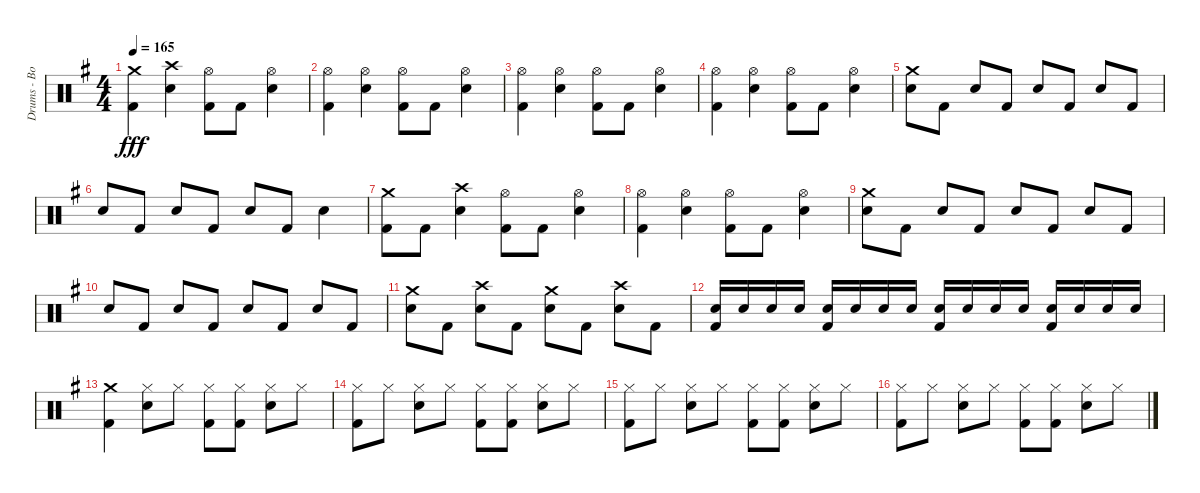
\track ("Drums - Bobby Schayer" "Drums - Bo") {instrument percussion}
\staff {score}
\articulation defaults
\ts (4 4)
\tempo 165
\clef neutral
\ks g
("Crash medium (hit)" "Kick (hit) 2").4{dy fff} ("Crash high (hit)" "Electric Snare (hit)").4 ("Hi-Hat (open)" "Kick (hit) 2").8 "Kick (hit) 2".8 ("Hi-Hat (open)" "Electric Snare (hit)").4 |
("Hi-Hat (open)" "Kick (hit) 2").4 ("Hi-Hat (open)" "Electric Snare (hit)").4 ("Hi-Hat (open)" "Kick (hit) 2").8 "Kick (hit) 2".8 ("Hi-Hat (open)" "Electric Snare (hit)").4 |
("Hi-Hat (open)" "Kick (hit) 2").4 ("Hi-Hat (open)" "Electric Snare (hit)").4 ("Hi-Hat (open)" "Kick (hit) 2").8 "Kick (hit) 2".8 ("Hi-Hat (open)" "Electric Snare (hit)").4 |
("Hi-Hat (open)" "Kick (hit) 2").4 ("Hi-Hat (open)" "Electric Snare (hit)").4 ("Hi-Hat (open)" "Kick (hit) 2").8 "Kick (hit) 2".8 ("Hi-Hat (open)" "Electric Snare (hit)").4 |
("Crash medium (hit)" "Electric Snare (hit)").8 "Kick (hit) 2".8 "Electric Snare (hit)".8 "Kick (hit) 2".8 "Electric Snare (hit)".8 "Kick (hit) 2".8 "Electric Snare (hit)".8 "Kick (hit) 2".8 |
"Electric Snare (hit)".8 "Kick (hit) 2".8 "Electric Snare (hit)".8 "Kick (hit) 2".8 "Electric Snare (hit)".8 "Kick (hit) 2".8 "Electric Snare (hit)".4 |
("Crash medium (hit)" "Kick (hit) 2").8 "Kick (hit) 2".8 ("Crash high (hit)" "Electric Snare (hit)").4 ("Hi-Hat (open)" "Kick (hit) 2").8 "Kick (hit) 2".8 ("Hi-Hat (open)" "Electric Snare (hit)").4 |
("Hi-Hat (open)" "Kick (hit) 2").4 ("Hi-Hat (open)" "Electric Snare (hit)").4 ("Hi-Hat (open)" "Kick (hit) 2").8 "Kick (hit) 2".8 ("Hi-Hat (open)" "Electric Snare (hit)").4 |
("Crash medium (hit)" "Electric Snare (hit)").8 "Kick (hit) 2".8 "Electric Snare (hit)".8 "Kick (hit) 2".8 "Electric Snare (hit)".8 "Kick (hit) 2".8 "Electric Snare (hit)".8 "Kick (hit) 2".8 |
"Electric Snare (hit)".8 "Kick (hit) 2".8 "Electric Snare (hit)".8 "Kick (hit) 2".8 "Electric Snare (hit)".8 "Kick (hit) 2".8 "Electric Snare (hit)".8 "Kick (hit) 2".8 |
("Crash medium (hit)" "Electric Snare (hit)").8 "Kick (hit) 2".8 ("Crash high (hit)" "Electric Snare (hit)").8 "Kick (hit) 2".8 ("Crash medium (hit)" "Electric Snare (hit)").8 "Kick (hit) 2".8 ("Crash high (hit)" "Electric Snare (hit)").8 "Kick (hit) 2".8 |
("Electric Snare (hit)" "Kick (hit) 2").16 "Electric Snare (hit)".16 "Electric Snare (hit)".16 "Electric Snare (hit)".16 ("Electric Snare (hit)" "Kick (hit) 2").16 "Electric Snare (hit)".16 "Electric Snare (hit)".16 "Electric Snare (hit)".16 ("Electric Snare (hit)" "Kick (hit) 2").16 "Electric Snare (hit)".16 "Electric Snare (hit)".16 "Electric Snare (hit)".16 ("Electric Snare (hit)" "Kick (hit) 2").16 "Electric Snare (hit)".16 "Electric Snare (hit)".16 "Electric Snare (hit)".16 |
("Crash medium (hit)" "Kick (hit) 2").4 ("Hi-Hat (closed)" "Electric Snare (hit)").8 "Hi-Hat (closed)".8 ("Hi-Hat (closed)" "Kick (hit) 2").8 ("Hi-Hat (closed)" "Kick (hit) 2").8 ("Hi-Hat (closed)" "Electric Snare (hit)").8 "Hi-Hat (closed)".8 |
("Hi-Hat (closed)" "Kick (hit) 2").8 "Hi-Hat (closed)".8 ("Hi-Hat (closed)" "Electric Snare (hit)").8 "Hi-Hat (closed)".8 ("Hi-Hat (closed)" "Kick (hit) 2").8 ("Hi-Hat (closed)" "Kick (hit) 2").8 ("Hi-Hat (closed)" "Electric Snare (hit)").8 "Hi-Hat (closed)".8 |
("Hi-Hat (closed)" "Kick (hit) 2").8 "Hi-Hat (closed)".8 ("Hi-Hat (closed)" "Electric Snare (hit)").8 "Hi-Hat (closed)".8 ("Hi-Hat (closed)" "Kick (hit) 2").8 ("Hi-Hat (closed)" "Kick (hit) 2").8 ("Hi-Hat (closed)" "Electric Snare (hit)").8 "Hi-Hat (closed)".8 |
("Hi-Hat (closed)" "Kick (hit) 2").8 "Hi-Hat (closed)".8 ("Hi-Hat (closed)" "Electric Snare (hit)").8 "Hi-Hat (closed)".8 ("Hi-Hat (closed)" "Kick (hit) 2").8 ("Hi-Hat (closed)" "Kick (hit) 2").8 ("Hi-Hat (closed)" "Electric Snare (hit)").8 "Hi-Hat (closed)".8
